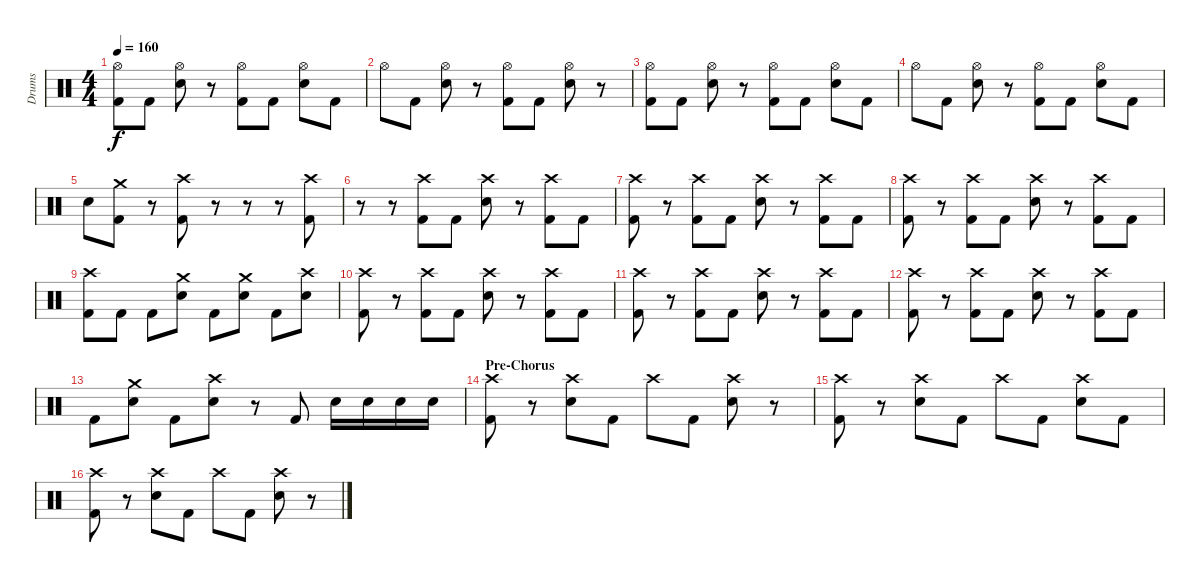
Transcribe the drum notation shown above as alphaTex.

\track ("Drums" "Drums") {instrument percussion}
\staff {score}
\articulation defaults
\ts (4 4)
\tempo 160
\clef neutral
\ks c
("Hi-Hat (open)" "Kick (hit) 2").8{dy f} "Kick (hit) 2".8 ("Hi-Hat (open)" "Snare (hit) 2").8 r.8 ("Hi-Hat (open)" "Kick (hit) 2").8 "Kick (hit) 2".8 ("Hi-Hat (open)" "Snare (hit) 2").8 "Kick (hit) 2".8 |
"Hi-Hat (open)".8 "Kick (hit) 2".8 ("Hi-Hat (open)" "Snare (hit) 2").8 r.8 ("Hi-Hat (open)" "Kick (hit) 2").8 "Kick (hit) 2".8 ("Hi-Hat (open)" "Snare (hit) 2").8 r.8 |
("Hi-Hat (open)" "Kick (hit) 2").8 "Kick (hit) 2".8 ("Hi-Hat (open)" "Snare (hit) 2").8 r.8 ("Hi-Hat (open)" "Kick (hit) 2").8 "Kick (hit) 2".8 ("Hi-Hat (open)" "Snare (hit) 2").8 "Kick (hit) 2".8 |
"Hi-Hat (open)".8 "Kick (hit) 2".8 ("Hi-Hat (open)" "Snare (hit) 2").8 r.8 ("Hi-Hat (open)" "Kick (hit) 2").8 "Kick (hit) 2".8 ("Hi-Hat (open)" "Snare (hit) 2").8 "Kick (hit) 2".8 |
"Snare (hit) 2".8 ("Crash medium (hit)" "Kick (hit) 2").8 r.8 ("Crash high (hit)" "Kick (hit) 2").8 r.8 r.8 r.8 ("Crash high (hit)" "Kick (hit) 2").8 |
r.8 r.8 ("Crash high (hit)" "Kick (hit) 2").8 "Kick (hit) 2".8 ("Crash high (hit)" "Snare (hit) 2").8 r.8 ("Crash high (hit)" "Kick (hit) 2").8 "Kick (hit) 2".8 |
("Crash high (hit)" "Kick (hit) 2").8 r.8 ("Crash high (hit)" "Kick (hit) 2").8 "Kick (hit) 2".8 ("Crash high (hit)" "Snare (hit) 2").8 r.8 ("Crash high (hit)" "Kick (hit) 2").8 "Kick (hit) 2".8 |
("Crash high (hit)" "Kick (hit) 2").8 r.8 ("Crash high (hit)" "Kick (hit) 2").8 "Kick (hit) 2".8 ("Crash high (hit)" "Snare (hit) 2").8 r.8 ("Crash high (hit)" "Kick (hit) 2").8 "Kick (hit) 2".8 |
("Crash high (hit)" "Kick (hit) 2").8 "Kick (hit) 2".8 "Kick (hit) 2".8 ("Crash medium (hit)" "Snare (hit) 2").8 "Kick (hit) 2".8 ("Crash medium (hit)" "Snare (hit) 2").8 "Kick (hit) 2".8 ("Crash high (hit)" "Snare (hit) 2").8 |
("Crash high (hit)" "Kick (hit) 2").8 r.8 ("Crash high (hit)" "Kick (hit) 2").8 "Kick (hit) 2".8 ("Crash high (hit)" "Snare (hit) 2").8 r.8 ("Crash high (hit)" "Kick (hit) 2").8 "Kick (hit) 2".8 |
("Crash high (hit)" "Kick (hit) 2").8 r.8 ("Crash high (hit)" "Kick (hit) 2").8 "Kick (hit) 2".8 ("Crash high (hit)" "Snare (hit) 2").8 r.8 ("Crash high (hit)" "Kick (hit) 2").8 "Kick (hit) 2".8 |
("Crash high (hit)" "Kick (hit) 2").8 r.8 ("Crash high (hit)" "Kick (hit) 2").8 "Kick (hit) 2".8 ("Crash high (hit)" "Snare (hit) 2").8 r.8 ("Crash high (hit)" "Kick (hit) 2").8 "Kick (hit) 2".8 |
"Kick (hit) 2".8 ("Crash medium (hit)" "Snare (hit) 2").8 "Kick (hit) 2".8 ("Crash high (hit)" "Snare (hit) 2").8 r.8 "Kick (hit) 2".8 "Snare (hit) 2".16 "Snare (hit) 2".16 "Snare (hit) 2".16 "Snare (hit) 2".16 |
\section ("" "Pre-Chorus")
("Crash high (hit)" "Kick (hit) 2").8 r.8 ("Crash high (hit)" "Snare (hit) 2").8 "Kick (hit) 2".8 "Crash high (hit)".8 "Kick (hit) 2".8 ("Crash high (hit)" "Snare (hit) 2").8 r.8 |
("Crash high (hit)" "Kick (hit) 2").8 r.8 ("Crash high (hit)" "Snare (hit) 2").8 "Kick (hit) 2".8 "Crash high (hit)".8 "Kick (hit) 2".8 ("Crash high (hit)" "Snare (hit) 2").8 "Kick (hit) 2".8 |
("Crash high (hit)" "Kick (hit) 2").8 r.8 ("Crash high (hit)" "Snare (hit) 2").8 "Kick (hit) 2".8 "Crash high (hit)".8 "Kick (hit) 2".8 ("Crash high (hit)" "Snare (hit) 2").8 r.8
